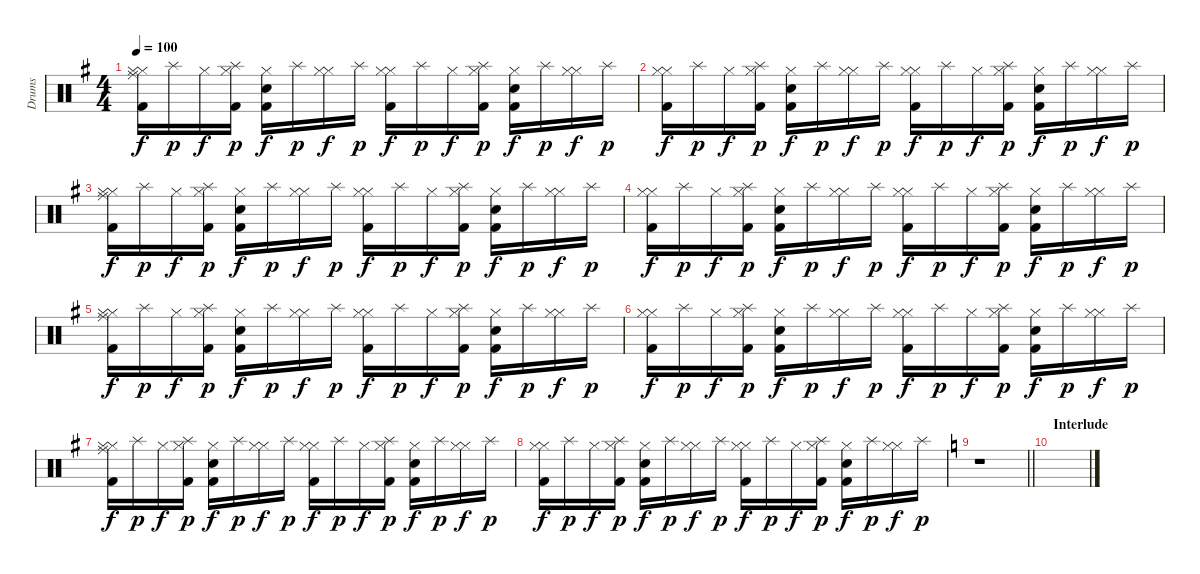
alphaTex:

\track ("Drums" "Drums") {instrument percussion}
\staff {score}
\articulation defaults
\ts (4 4)
\tempo 100
\clef neutral
\ks g
("Ride (middle)" "Hi-Hat (closed)" "Hi-Hat (closed)" "Kick (hit) 2").16{dy f} "Splash (hit)".16{dy p} "Hi-Hat (closed)".16{dy f} ("Splash (hit)" "Hi-Hat (closed)" "Kick (hit) 2").16{dy p} ("Electric Snare (hit)" "Hi-Hat (closed)" "Kick (hit) 2").16{dy f} "Splash (hit)".16{dy p} ("Hi-Hat (closed)" "Hi-Hat (closed)").16{dy f} "Splash (hit)".16{dy p} ("Hi-Hat (closed)" "Hi-Hat (closed)" "Kick (hit) 2").16{dy f} "Splash (hit)".16{dy p} "Hi-Hat (closed)".16{dy f} ("Splash (hit)" "Hi-Hat (closed)" "Kick (hit) 2").16{dy p} ("Electric Snare (hit)" "Hi-Hat (closed)" "Kick (hit) 2").16{dy f} "Splash (hit)".16{dy p} ("Hi-Hat (closed)" "Hi-Hat (closed)").16{dy f} "Splash (hit)".16{dy p} |
("Hi-Hat (closed)" "Hi-Hat (closed)" "Kick (hit) 2").16{dy f} "Splash (hit)".16{dy p} "Hi-Hat (closed)".16{dy f} ("Splash (hit)" "Hi-Hat (closed)" "Kick (hit) 2").16{dy p} ("Electric Snare (hit)" "Hi-Hat (closed)" "Kick (hit) 2").16{dy f} "Splash (hit)".16{dy p} ("Hi-Hat (closed)" "Hi-Hat (closed)").16{dy f} "Splash (hit)".16{dy p} ("Hi-Hat (closed)" "Hi-Hat (closed)" "Kick (hit) 2").16{dy f} "Splash (hit)".16{dy p} "Hi-Hat (closed)".16{dy f} ("Splash (hit)" "Hi-Hat (closed)" "Kick (hit) 2").16{dy p} ("Electric Snare (hit)" "Hi-Hat (closed)" "Kick (hit) 2").16{dy f} "Splash (hit)".16{dy p} ("Hi-Hat (closed)" "Hi-Hat (closed)").16{dy f} "Splash (hit)".16{dy p} |
("Ride (middle)" "Hi-Hat (closed)" "Hi-Hat (closed)" "Kick (hit) 2").16{dy f} "Splash (hit)".16{dy p} "Hi-Hat (closed)".16{dy f} ("Splash (hit)" "Hi-Hat (closed)" "Kick (hit) 2").16{dy p} ("Electric Snare (hit)" "Hi-Hat (closed)" "Kick (hit) 2").16{dy f} "Splash (hit)".16{dy p} ("Hi-Hat (closed)" "Hi-Hat (closed)").16{dy f} "Splash (hit)".16{dy p} ("Hi-Hat (closed)" "Hi-Hat (closed)" "Kick (hit) 2").16{dy f} "Splash (hit)".16{dy p} "Hi-Hat (closed)".16{dy f} ("Splash (hit)" "Hi-Hat (closed)" "Kick (hit) 2").16{dy p} ("Electric Snare (hit)" "Hi-Hat (closed)" "Kick (hit) 2").16{dy f} "Splash (hit)".16{dy p} ("Hi-Hat (closed)" "Hi-Hat (closed)").16{dy f} "Splash (hit)".16{dy p} |
("Hi-Hat (closed)" "Hi-Hat (closed)" "Kick (hit) 2").16{dy f} "Splash (hit)".16{dy p} "Hi-Hat (closed)".16{dy f} ("Splash (hit)" "Hi-Hat (closed)" "Kick (hit) 2").16{dy p} ("Electric Snare (hit)" "Hi-Hat (closed)" "Kick (hit) 2").16{dy f} "Splash (hit)".16{dy p} ("Hi-Hat (closed)" "Hi-Hat (closed)").16{dy f} "Splash (hit)".16{dy p} ("Hi-Hat (closed)" "Hi-Hat (closed)" "Kick (hit) 2").16{dy f} "Splash (hit)".16{dy p} "Hi-Hat (closed)".16{dy f} ("Splash (hit)" "Hi-Hat (closed)" "Kick (hit) 2").16{dy p} ("Electric Snare (hit)" "Hi-Hat (closed)" "Kick (hit) 2").16{dy f} "Splash (hit)".16{dy p} ("Hi-Hat (closed)" "Hi-Hat (closed)").16{dy f} "Splash (hit)".16{dy p} |
("Ride (middle)" "Hi-Hat (closed)" "Hi-Hat (closed)" "Kick (hit) 2").16{dy f} "Splash (hit)".16{dy p} "Hi-Hat (closed)".16{dy f} ("Splash (hit)" "Hi-Hat (closed)" "Kick (hit) 2").16{dy p} ("Electric Snare (hit)" "Hi-Hat (closed)" "Kick (hit) 2").16{dy f} "Splash (hit)".16{dy p} ("Hi-Hat (closed)" "Hi-Hat (closed)").16{dy f} "Splash (hit)".16{dy p} ("Hi-Hat (closed)" "Hi-Hat (closed)" "Kick (hit) 2").16{dy f} "Splash (hit)".16{dy p} "Hi-Hat (closed)".16{dy f} ("Splash (hit)" "Hi-Hat (closed)" "Kick (hit) 2").16{dy p} ("Electric Snare (hit)" "Hi-Hat (closed)" "Kick (hit) 2").16{dy f} "Splash (hit)".16{dy p} ("Hi-Hat (closed)" "Hi-Hat (closed)").16{dy f} "Splash (hit)".16{dy p} |
("Hi-Hat (closed)" "Hi-Hat (closed)" "Kick (hit) 2").16{dy f} "Splash (hit)".16{dy p} "Hi-Hat (closed)".16{dy f} ("Splash (hit)" "Hi-Hat (closed)" "Kick (hit) 2").16{dy p} ("Electric Snare (hit)" "Hi-Hat (closed)" "Kick (hit) 2").16{dy f} "Splash (hit)".16{dy p} ("Hi-Hat (closed)" "Hi-Hat (closed)").16{dy f} "Splash (hit)".16{dy p} ("Hi-Hat (closed)" "Hi-Hat (closed)" "Kick (hit) 2").16{dy f} "Splash (hit)".16{dy p} "Hi-Hat (closed)".16{dy f} ("Splash (hit)" "Hi-Hat (closed)" "Kick (hit) 2").16{dy p} ("Electric Snare (hit)" "Hi-Hat (closed)" "Kick (hit) 2").16{dy f} "Splash (hit)".16{dy p} ("Hi-Hat (closed)" "Hi-Hat (closed)").16{dy f} "Splash (hit)".16{dy p} |
("Ride (middle)" "Hi-Hat (closed)" "Hi-Hat (closed)" "Kick (hit) 2").16{dy f} "Splash (hit)".16{dy p} "Hi-Hat (closed)".16{dy f} ("Splash (hit)" "Hi-Hat (closed)" "Kick (hit) 2").16{dy p} ("Electric Snare (hit)" "Hi-Hat (closed)" "Kick (hit) 2").16{dy f} "Splash (hit)".16{dy p} ("Hi-Hat (closed)" "Hi-Hat (closed)").16{dy f} "Splash (hit)".16{dy p} ("Hi-Hat (closed)" "Hi-Hat (closed)" "Kick (hit) 2").16{dy f} "Splash (hit)".16{dy p} "Hi-Hat (closed)".16{dy f} ("Splash (hit)" "Hi-Hat (closed)" "Kick (hit) 2").16{dy p} ("Electric Snare (hit)" "Hi-Hat (closed)" "Kick (hit) 2").16{dy f} "Splash (hit)".16{dy p} ("Hi-Hat (closed)" "Hi-Hat (closed)").16{dy f} "Splash (hit)".16{dy p} |
("Hi-Hat (closed)" "Hi-Hat (closed)" "Kick (hit) 2").16{dy f} "Splash (hit)".16{dy p} "Hi-Hat (closed)".16{dy f} ("Splash (hit)" "Hi-Hat (closed)" "Kick (hit) 2").16{dy p} ("Electric Snare (hit)" "Hi-Hat (closed)" "Kick (hit) 2").16{dy f} "Splash (hit)".16{dy p} ("Hi-Hat (closed)" "Hi-Hat (closed)").16{dy f} "Splash (hit)".16{dy p} ("Hi-Hat (closed)" "Hi-Hat (closed)" "Kick (hit) 2").16{dy f} "Splash (hit)".16{dy p} "Hi-Hat (closed)".16{dy f} ("Splash (hit)" "Hi-Hat (closed)" "Kick (hit) 2").16{dy p} ("Electric Snare (hit)" "Hi-Hat (closed)" "Kick (hit) 2").16{dy f} "Splash (hit)".16{dy p} ("Hi-Hat (closed)" "Hi-Hat (closed)").16{dy f} "Splash (hit)".16{dy p} |
\barLineRight lightlight
\ks c
r.1 |
\section ("" "Interlude")
